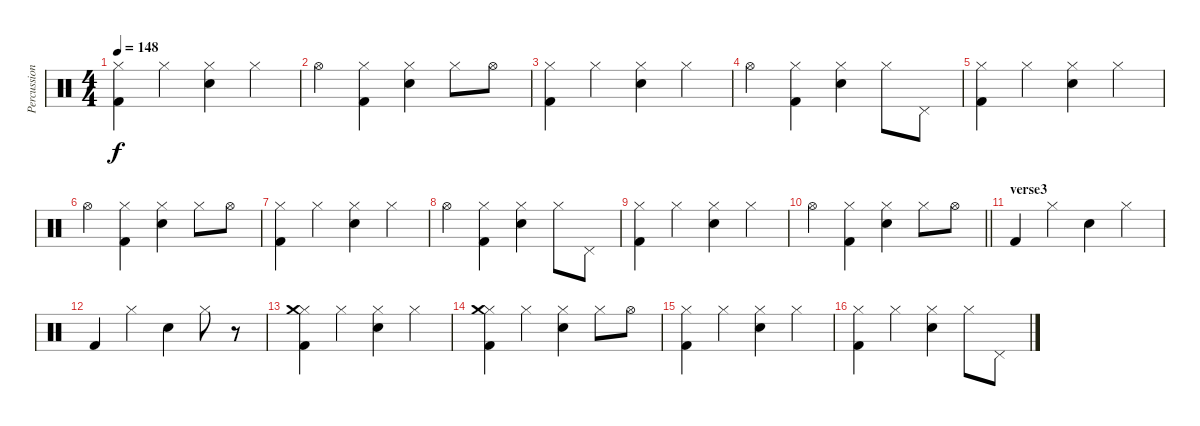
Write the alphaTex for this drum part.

\track ("Percussions" "Percussion") {instrument percussion}
\staff {score}
\articulation defaults
\ts (4 4)
\tempo 148
\clef neutral
\ks c
("Hi-Hat (closed)" "Kick (hit) 2").4{dy f} "Hi-Hat (closed)".4 ("Hi-Hat (closed)" "Snare (hit) 2").4 "Hi-Hat (closed)".4 |
"Hi-Hat (open)".4 ("Hi-Hat (closed)" "Kick (hit) 2").4 ("Hi-Hat (closed)" "Snare (hit) 2").4 "Hi-Hat (closed)".8 "Hi-Hat (open)".8 |
("Hi-Hat (closed)" "Kick (hit) 2").4 "Hi-Hat (closed)".4 ("Hi-Hat (closed)" "Snare (hit) 2").4 "Hi-Hat (closed)".4 |
"Hi-Hat (open)".4 ("Hi-Hat (closed)" "Kick (hit) 2").4 ("Hi-Hat (closed)" "Snare (hit) 2").4 "Hi-Hat (closed)".8 "Pedal Hi-Hat (hit)".8 |
("Hi-Hat (closed)" "Kick (hit) 2").4 "Hi-Hat (closed)".4 ("Hi-Hat (closed)" "Snare (hit) 2").4 "Hi-Hat (closed)".4 |
"Hi-Hat (open)".4 ("Hi-Hat (closed)" "Kick (hit) 2").4 ("Hi-Hat (closed)" "Snare (hit) 2").4 "Hi-Hat (closed)".8 "Hi-Hat (open)".8 |
("Hi-Hat (closed)" "Kick (hit) 2").4 "Hi-Hat (closed)".4 ("Hi-Hat (closed)" "Snare (hit) 2").4 "Hi-Hat (closed)".4 |
"Hi-Hat (open)".4 ("Hi-Hat (closed)" "Kick (hit) 2").4 ("Hi-Hat (closed)" "Snare (hit) 2").4 "Hi-Hat (closed)".8 "Pedal Hi-Hat (hit)".8 |
("Hi-Hat (closed)" "Kick (hit) 2").4 "Hi-Hat (closed)".4 ("Hi-Hat (closed)" "Snare (hit) 2").4 "Hi-Hat (closed)".4 |
\barLineRight lightlight "Hi-Hat (open)".4
("Hi-Hat (closed)" "Kick (hit) 2").4 ("Hi-Hat (closed)" "Snare (hit) 2").4 "Hi-Hat (closed)".8 "Hi-Hat (open)".8 |
\section ("" "verse3")
"Kick (hit) 2".4 "Hi-Hat (closed)".4 "Snare (hit) 2".4 "Hi-Hat (closed)".4 |
"Kick (hit) 2".4 "Hi-Hat (closed)".4 "Snare (hit) 2".4 "Hi-Hat (closed)".8 r.8 |
("Hi-Hat (closed)" "Kick (hit) 2" "Crash medium (hit)").4 "Hi-Hat (closed)".4 ("Hi-Hat (closed)" "Snare (hit) 2").4 "Hi-Hat (closed)".4 |
("Hi-Hat (closed)" "Kick (hit) 2" "Crash medium (hit)").4 "Hi-Hat (closed)".4 ("Hi-Hat (closed)" "Snare (hit) 2").4 "Hi-Hat (closed)".8 "Hi-Hat (open)".8 |
("Hi-Hat (closed)" "Kick (hit) 2").4 "Hi-Hat (closed)".4 ("Hi-Hat (closed)" "Snare (hit) 2").4 "Hi-Hat (closed)".4 |
("Hi-Hat (closed)" "Kick (hit) 2").4 "Hi-Hat (closed)".4 ("Hi-Hat (closed)" "Snare (hit) 2").4 "Hi-Hat (closed)".8 "Pedal Hi-Hat (hit)".8
